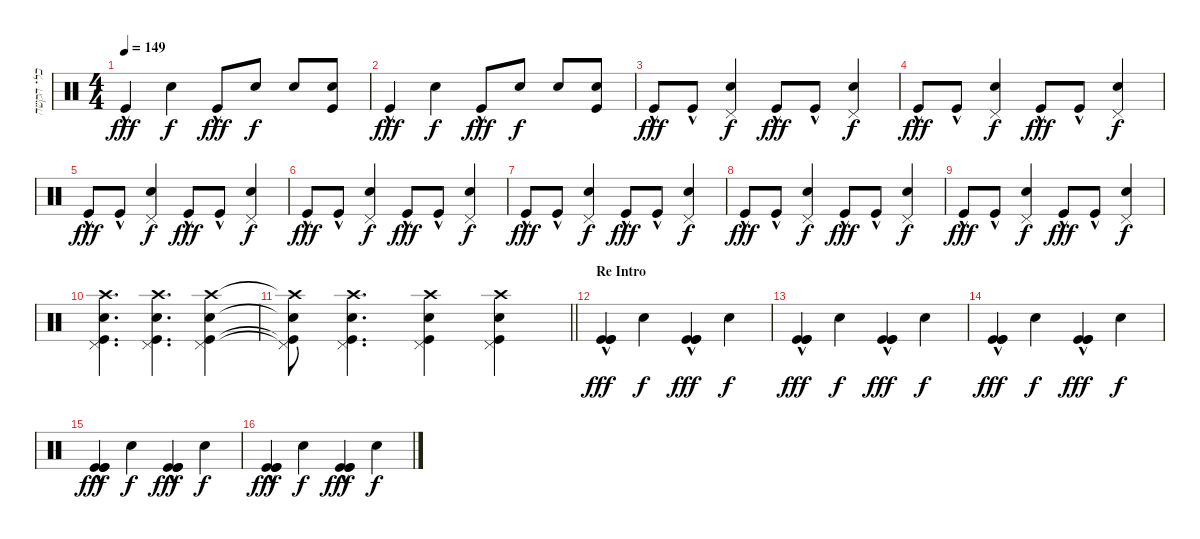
\track ("כלי הקשה" "כלי הקשה") {instrument percussion}
\staff {score}
\articulation defaults
\ts (4 4)
\tempo 149
\clef neutral
\ks c "Kick (hit)"{hac}.4{dy fff} "Electric Snare (hit)".4{dy f} "Kick (hit)"{hac}.8{dy fff} "Electric Snare (hit)".8{dy f} "Electric Snare (hit)".8
("Electric Snare (hit)" "Kick (hit)").8 |
"Kick (hit)"{hac}.4{dy fff} "Electric Snare (hit)".4{dy f} "Kick (hit)"{hac}.8{dy fff} "Electric Snare (hit)".8{dy f} "Electric Snare (hit)".8 ("Electric Snare (hit)" "Kick (hit)").8 |
"Kick (hit)"{hac}.8{dy fff} "Kick (hit)"{hac}.8 ("Electric Snare (hit)" "Pedal Hi-Hat (hit)").4{dy f} "Kick (hit)"{hac}.8{dy fff} "Kick (hit)"{hac}.8 ("Electric Snare (hit)" "Pedal Hi-Hat (hit)").4{dy f} |
"Kick (hit)"{hac}.8{dy fff} "Kick (hit)"{hac}.8 ("Electric Snare (hit)" "Pedal Hi-Hat (hit)").4{dy f} "Kick (hit)"{hac}.8{dy fff} "Kick (hit)"{hac}.8 ("Electric Snare (hit)" "Pedal Hi-Hat (hit)").4{dy f} |
"Kick (hit)"{hac}.8{dy fff} "Kick (hit)"{hac}.8 ("Electric Snare (hit)" "Pedal Hi-Hat (hit)").4{dy f} "Kick (hit)"{hac}.8{dy fff} "Kick (hit)"{hac}.8 ("Electric Snare (hit)" "Pedal Hi-Hat (hit)").4{dy f} |
"Kick (hit)"{hac}.8{dy fff} "Kick (hit)"{hac}.8 ("Electric Snare (hit)" "Pedal Hi-Hat (hit)").4{dy f} "Kick (hit)"{hac}.8{dy fff} "Kick (hit)"{hac}.8 ("Electric Snare (hit)" "Pedal Hi-Hat (hit)").4{dy f} |
"Kick (hit)"{hac}.8{dy fff} "Kick (hit)"{hac}.8 ("Electric Snare (hit)" "Pedal Hi-Hat (hit)").4{dy f} "Kick (hit)"{hac}.8{dy fff} "Kick (hit)"{hac}.8 ("Electric Snare (hit)" "Pedal Hi-Hat (hit)").4{dy f} |
"Kick (hit)"{hac}.8{dy fff} "Kick (hit)"{hac}.8 ("Electric Snare (hit)" "Pedal Hi-Hat (hit)").4{dy f} "Kick (hit)"{hac}.8{dy fff} "Kick (hit)"{hac}.8 ("Electric Snare (hit)" "Pedal Hi-Hat (hit)").4{dy f} |
"Kick (hit)"{hac}.8{dy fff} "Kick (hit)"{hac}.8 ("Electric Snare (hit)" "Pedal Hi-Hat (hit)").4{dy f} "Kick (hit)"{hac}.8{dy fff} "Kick (hit)"{hac}.8 ("Electric Snare (hit)" "Pedal Hi-Hat (hit)").4{dy f} |
("Electric Snare (hit)" "Kick (hit)" "Pedal Hi-Hat (hit)" "Crash high (hit)").4{d} ("Electric Snare (hit)" "Kick (hit)" "Pedal Hi-Hat (hit)" "Crash high (hit)").4{d} ("Electric Snare (hit)" "Kick (hit)" "Pedal Hi-Hat (hit)" "Crash high (hit)").4 |
\barLineRight lightlight
("Electric Snare (hit)"{t} "Kick (hit)"{t} "Pedal Hi-Hat (hit)"{t} "Crash high (hit)"{t}).8 ("Electric Snare (hit)" "Kick (hit)" "Pedal Hi-Hat (hit)" "Crash high (hit)").4{d} ("Electric Snare (hit)" "Kick (hit)" "Pedal Hi-Hat (hit)" "Crash high (hit)").4 ("Electric Snare (hit)" "Kick (hit)" "Pedal Hi-Hat (hit)" "Crash high (hit)").4 |
\section ("" "Re Intro")
("Kick (hit)"{hac} "Kick (hit)"{hac} "Kick (hit)"{hac}).4{dy fff} "Electric Snare (hit)".4{dy f} ("Kick (hit)"{hac} "Kick (hit)"{hac} "Kick (hit)"{hac}).4{dy fff} "Electric Snare (hit)".4{dy f} |
("Kick (hit)"{hac} "Kick (hit)"{hac} "Kick (hit)"{hac}).4{dy fff} "Electric Snare (hit)".4{dy f} ("Kick (hit)"{hac} "Kick (hit)"{hac} "Kick (hit)"{hac}).4{dy fff} "Electric Snare (hit)".4{dy f} |
("Kick (hit)"{hac} "Kick (hit)"{hac} "Kick (hit)"{hac}).4{dy fff} "Electric Snare (hit)".4{dy f} ("Kick (hit)"{hac} "Kick (hit)"{hac} "Kick (hit)"{hac}).4{dy fff} "Electric Snare (hit)".4{dy f} |
("Kick (hit)"{hac} "Kick (hit)"{hac} "Kick (hit)"{hac}).4{dy fff} "Electric Snare (hit)".4{dy f} ("Kick (hit)"{hac} "Kick (hit)"{hac} "Kick (hit)"{hac}).4{dy fff} "Electric Snare (hit)".4{dy f} |
("Kick (hit)"{hac} "Kick (hit)"{hac} "Kick (hit)"{hac}).4{dy fff} "Electric Snare (hit)".4{dy f} ("Kick (hit)"{hac} "Kick (hit)"{hac} "Kick (hit)"{hac}).4{dy fff} "Electric Snare (hit)".4{dy f}
